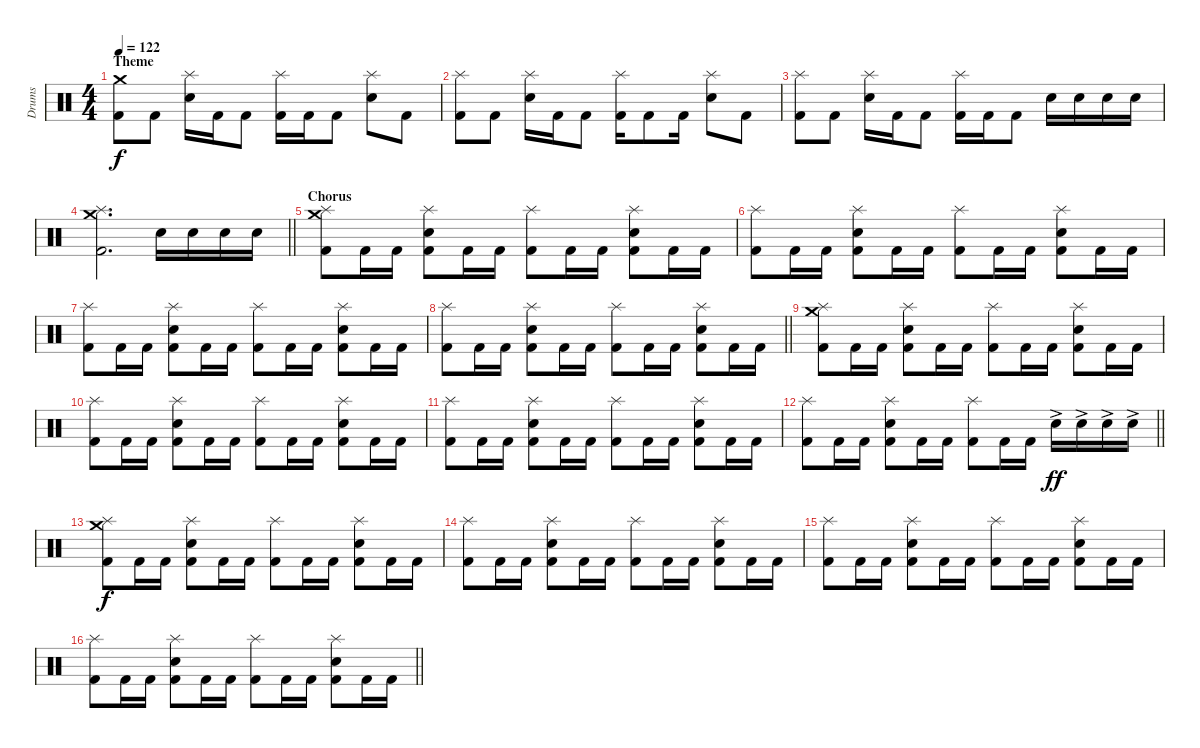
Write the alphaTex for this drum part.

\track ("Drums" "Drums") {instrument percussion}
\staff {score}
\articulation defaults
\ts (4 4)
\section ("" "Theme")
\tempo 122
\clef neutral
\ks c
("Kick (hit) 2" "Crash medium (hit)").8{dy f} "Kick (hit) 2".8 ("Snare (hit) 2" "Splash (hit)").16 "Kick (hit) 2".16 "Kick (hit) 2".8 ("Kick (hit) 2" "Splash (hit)").16 "Kick (hit) 2".16 "Kick (hit) 2".8 ("Snare (hit) 2" "Splash (hit)").8 "Kick (hit) 2".8 |
("Kick (hit) 2" "Splash (hit)").8 "Kick (hit) 2".8 ("Snare (hit) 2" "Splash (hit)").16 "Kick (hit) 2".16 "Kick (hit) 2".8 ("Kick (hit) 2" "Splash (hit)").16 "Kick (hit) 2".8 "Kick (hit) 2".16 ("Snare (hit) 2" "Splash (hit)").8 "Kick (hit) 2".8 |
("Kick (hit) 2" "Splash (hit)").8 "Kick (hit) 2".8 ("Snare (hit) 2" "Splash (hit)").16 "Kick (hit) 2".16 "Kick (hit) 2".8 ("Kick (hit) 2" "Splash (hit)").16 "Kick (hit) 2".16 "Kick (hit) 2".8 "Snare (hit) 2".16 "Snare (hit) 2".16 "Snare (hit) 2".16 "Snare (hit) 2".16 |
\barLineRight lightlight
("Kick (hit) 2" "Splash (hit)" "Crash medium (hit)").2{d} "Snare (hit) 2".16 "Snare (hit) 2".16 "Snare (hit) 2".16 "Snare (hit) 2".16 |
\section ("" "Chorus")
("Kick (hit) 2" "Splash (hit)" "Crash medium (hit)").8 "Kick (hit) 2".16 "Kick (hit) 2".16 ("Kick (hit) 2" "Snare (hit) 2" "Splash (hit)").8 "Kick (hit) 2".16 "Kick (hit) 2".16 ("Kick (hit) 2" "Splash (hit)").8 "Kick (hit) 2".16 "Kick (hit) 2".16 ("Kick (hit) 2" "Snare (hit) 2" "Splash (hit)").8 "Kick (hit) 2".16 "Kick (hit) 2".16 |
("Kick (hit) 2" "Splash (hit)").8 "Kick (hit) 2".16 "Kick (hit) 2".16 ("Kick (hit) 2" "Snare (hit) 2" "Splash (hit)").8 "Kick (hit) 2".16 "Kick (hit) 2".16 ("Kick (hit) 2" "Splash (hit)").8 "Kick (hit) 2".16 "Kick (hit) 2".16 ("Kick (hit) 2" "Snare (hit) 2" "Splash (hit)").8 "Kick (hit) 2".16 "Kick (hit) 2".16 |
("Kick (hit) 2" "Splash (hit)").8 "Kick (hit) 2".16 "Kick (hit) 2".16 ("Kick (hit) 2" "Snare (hit) 2" "Splash (hit)").8 "Kick (hit) 2".16 "Kick (hit) 2".16 ("Kick (hit) 2" "Splash (hit)").8 "Kick (hit) 2".16 "Kick (hit) 2".16 ("Kick (hit) 2" "Snare (hit) 2" "Splash (hit)").8 "Kick (hit) 2".16 "Kick (hit) 2".16 |
\barLineRight lightlight
("Kick (hit) 2" "Splash (hit)").8 "Kick (hit) 2".16 "Kick (hit) 2".16 ("Kick (hit) 2" "Snare (hit) 2" "Splash (hit)").8 "Kick (hit) 2".16 "Kick (hit) 2".16 ("Kick (hit) 2" "Splash (hit)").8 "Kick (hit) 2".16 "Kick (hit) 2".16 ("Kick (hit) 2" "Snare (hit) 2" "Splash (hit)").8 "Kick (hit) 2".16 "Kick (hit) 2".16 |
\section ("" "")
("Kick (hit) 2" "Splash (hit)" "Crash medium (hit)").8 "Kick (hit) 2".16 "Kick (hit) 2".16 ("Kick (hit) 2" "Snare (hit) 2" "Splash (hit)").8 "Kick (hit) 2".16 "Kick (hit) 2".16 ("Kick (hit) 2" "Splash (hit)").8 "Kick (hit) 2".16 "Kick (hit) 2".16 ("Kick (hit) 2" "Snare (hit) 2" "Splash (hit)").8 "Kick (hit) 2".16 "Kick (hit) 2".16 |
("Kick (hit) 2" "Splash (hit)").8 "Kick (hit) 2".16 "Kick (hit) 2".16 ("Kick (hit) 2" "Snare (hit) 2" "Splash (hit)").8 "Kick (hit) 2".16 "Kick (hit) 2".16 ("Kick (hit) 2" "Splash (hit)").8 "Kick (hit) 2".16 "Kick (hit) 2".16 ("Kick (hit) 2" "Snare (hit) 2" "Splash (hit)").8 "Kick (hit) 2".16 "Kick (hit) 2".16 |
("Kick (hit) 2" "Splash (hit)").8 "Kick (hit) 2".16 "Kick (hit) 2".16 ("Kick (hit) 2" "Snare (hit) 2" "Splash (hit)").8 "Kick (hit) 2".16 "Kick (hit) 2".16 ("Kick (hit) 2" "Splash (hit)").8 "Kick (hit) 2".16 "Kick (hit) 2".16 ("Kick (hit) 2" "Snare (hit) 2" "Splash (hit)").8 "Kick (hit) 2".16 "Kick (hit) 2".16 |
\barLineRight lightlight
("Kick (hit) 2" "Splash (hit)").8 "Kick (hit) 2".16 "Kick (hit) 2".16 ("Kick (hit) 2" "Snare (hit) 2" "Splash (hit)").8 "Kick (hit) 2".16 "Kick (hit) 2".16 ("Kick (hit) 2" "Splash (hit)").8 "Kick (hit) 2".16 "Kick (hit) 2".16 "Snare (hit) 2"{ac}.16{dy ff} "Snare (hit) 2"{ac}.16 "Snare (hit) 2"{ac}.16 "Snare (hit) 2"{ac}.16 |
\section ("" "")
("Kick (hit) 2" "Splash (hit)" "Crash medium (hit)").8{dy f} "Kick (hit) 2".16 "Kick (hit) 2".16 ("Kick (hit) 2" "Snare (hit) 2" "Splash (hit)").8 "Kick (hit) 2".16 "Kick (hit) 2".16 ("Kick (hit) 2" "Splash (hit)").8 "Kick (hit) 2".16 "Kick (hit) 2".16 ("Kick (hit) 2" "Snare (hit) 2" "Splash (hit)").8 "Kick (hit) 2".16 "Kick (hit) 2".16 |
("Kick (hit) 2" "Splash (hit)").8 "Kick (hit) 2".16 "Kick (hit) 2".16 ("Kick (hit) 2" "Snare (hit) 2" "Splash (hit)").8 "Kick (hit) 2".16 "Kick (hit) 2".16 ("Kick (hit) 2" "Splash (hit)").8 "Kick (hit) 2".16 "Kick (hit) 2".16 ("Kick (hit) 2" "Snare (hit) 2" "Splash (hit)").8 "Kick (hit) 2".16 "Kick (hit) 2".16 |
("Kick (hit) 2" "Splash (hit)").8 "Kick (hit) 2".16 "Kick (hit) 2".16 ("Kick (hit) 2" "Snare (hit) 2" "Splash (hit)").8 "Kick (hit) 2".16 "Kick (hit) 2".16 ("Kick (hit) 2" "Splash (hit)").8 "Kick (hit) 2".16 "Kick (hit) 2".16 ("Kick (hit) 2" "Snare (hit) 2" "Splash (hit)").8 "Kick (hit) 2".16 "Kick (hit) 2".16 |
\barLineRight lightlight
("Kick (hit) 2" "Splash (hit)").8 "Kick (hit) 2".16 "Kick (hit) 2".16 ("Kick (hit) 2" "Snare (hit) 2" "Splash (hit)").8 "Kick (hit) 2".16 "Kick (hit) 2".16 ("Kick (hit) 2" "Splash (hit)").8 "Kick (hit) 2".16 "Kick (hit) 2".16 ("Kick (hit) 2" "Snare (hit) 2" "Splash (hit)").8 "Kick (hit) 2".16 "Kick (hit) 2".16
